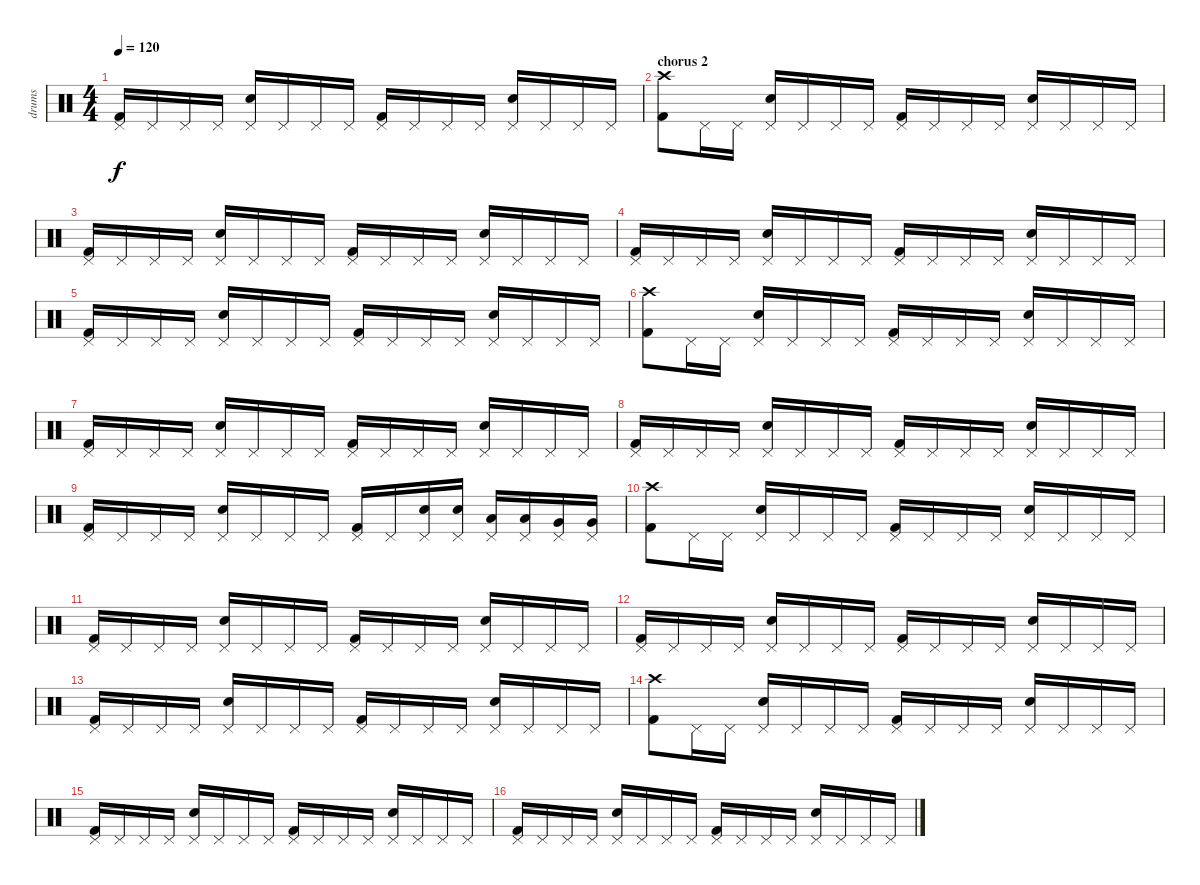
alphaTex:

\track ("drums" "drums") {instrument percussion}
\staff {score}
\articulation defaults
\ts (4 4)
\tempo 120
\clef neutral
\ks c
("Kick (hit) 2" "Pedal Hi-Hat (hit)").16{dy f} "Pedal Hi-Hat (hit)".16 "Pedal Hi-Hat (hit)".16 "Pedal Hi-Hat (hit)".16 ("Electric Snare (hit)" "Pedal Hi-Hat (hit)").16 "Pedal Hi-Hat (hit)".16 "Pedal Hi-Hat (hit)".16 "Pedal Hi-Hat (hit)".16 ("Kick (hit) 2" "Pedal Hi-Hat (hit)").16 "Pedal Hi-Hat (hit)".16 "Pedal Hi-Hat (hit)".16 "Pedal Hi-Hat (hit)".16 ("Electric Snare (hit)" "Pedal Hi-Hat (hit)").16 "Pedal Hi-Hat (hit)".16 "Pedal Hi-Hat (hit)".16 "Pedal Hi-Hat (hit)".16 |
\section ("" "chorus 2")
("Kick (hit) 2" "Crash high (hit)").8 "Pedal Hi-Hat (hit)".16 "Pedal Hi-Hat (hit)".16 ("Electric Snare (hit)" "Pedal Hi-Hat (hit)").16 "Pedal Hi-Hat (hit)".16 "Pedal Hi-Hat (hit)".16 "Pedal Hi-Hat (hit)".16 ("Kick (hit) 2" "Pedal Hi-Hat (hit)").16 "Pedal Hi-Hat (hit)".16 "Pedal Hi-Hat (hit)".16 "Pedal Hi-Hat (hit)".16 ("Electric Snare (hit)" "Pedal Hi-Hat (hit)").16 "Pedal Hi-Hat (hit)".16 "Pedal Hi-Hat (hit)".16 "Pedal Hi-Hat (hit)".16 |
("Kick (hit) 2" "Pedal Hi-Hat (hit)").16 "Pedal Hi-Hat (hit)".16 "Pedal Hi-Hat (hit)".16 "Pedal Hi-Hat (hit)".16 ("Electric Snare (hit)" "Pedal Hi-Hat (hit)").16 "Pedal Hi-Hat (hit)".16 "Pedal Hi-Hat (hit)".16 "Pedal Hi-Hat (hit)".16 ("Kick (hit) 2" "Pedal Hi-Hat (hit)").16 "Pedal Hi-Hat (hit)".16 "Pedal Hi-Hat (hit)".16 "Pedal Hi-Hat (hit)".16 ("Electric Snare (hit)" "Pedal Hi-Hat (hit)").16 "Pedal Hi-Hat (hit)".16 "Pedal Hi-Hat (hit)".16 "Pedal Hi-Hat (hit)".16 |
("Kick (hit) 2" "Pedal Hi-Hat (hit)").16 "Pedal Hi-Hat (hit)".16 "Pedal Hi-Hat (hit)".16 "Pedal Hi-Hat (hit)".16 ("Electric Snare (hit)" "Pedal Hi-Hat (hit)").16 "Pedal Hi-Hat (hit)".16 "Pedal Hi-Hat (hit)".16 "Pedal Hi-Hat (hit)".16 ("Kick (hit) 2" "Pedal Hi-Hat (hit)").16 "Pedal Hi-Hat (hit)".16 "Pedal Hi-Hat (hit)".16 "Pedal Hi-Hat (hit)".16 ("Electric Snare (hit)" "Pedal Hi-Hat (hit)").16 "Pedal Hi-Hat (hit)".16 "Pedal Hi-Hat (hit)".16 "Pedal Hi-Hat (hit)".16 |
("Kick (hit) 2" "Pedal Hi-Hat (hit)").16 "Pedal Hi-Hat (hit)".16 "Pedal Hi-Hat (hit)".16 "Pedal Hi-Hat (hit)".16 ("Electric Snare (hit)" "Pedal Hi-Hat (hit)").16 "Pedal Hi-Hat (hit)".16 "Pedal Hi-Hat (hit)".16 "Pedal Hi-Hat (hit)".16 ("Kick (hit) 2" "Pedal Hi-Hat (hit)").16 "Pedal Hi-Hat (hit)".16 "Pedal Hi-Hat (hit)".16 "Pedal Hi-Hat (hit)".16 ("Electric Snare (hit)" "Pedal Hi-Hat (hit)").16 "Pedal Hi-Hat (hit)".16 "Pedal Hi-Hat (hit)".16 "Pedal Hi-Hat (hit)".16 |
("Kick (hit) 2" "Crash high (hit)").8 "Pedal Hi-Hat (hit)".16 "Pedal Hi-Hat (hit)".16 ("Electric Snare (hit)" "Pedal Hi-Hat (hit)").16 "Pedal Hi-Hat (hit)".16 "Pedal Hi-Hat (hit)".16 "Pedal Hi-Hat (hit)".16 ("Kick (hit) 2" "Pedal Hi-Hat (hit)").16 "Pedal Hi-Hat (hit)".16 "Pedal Hi-Hat (hit)".16 "Pedal Hi-Hat (hit)".16 ("Electric Snare (hit)" "Pedal Hi-Hat (hit)").16 "Pedal Hi-Hat (hit)".16 "Pedal Hi-Hat (hit)".16 "Pedal Hi-Hat (hit)".16 |
("Kick (hit) 2" "Pedal Hi-Hat (hit)").16 "Pedal Hi-Hat (hit)".16 "Pedal Hi-Hat (hit)".16 "Pedal Hi-Hat (hit)".16 ("Electric Snare (hit)" "Pedal Hi-Hat (hit)").16 "Pedal Hi-Hat (hit)".16 "Pedal Hi-Hat (hit)".16 "Pedal Hi-Hat (hit)".16 ("Kick (hit) 2" "Pedal Hi-Hat (hit)").16 "Pedal Hi-Hat (hit)".16 "Pedal Hi-Hat (hit)".16 "Pedal Hi-Hat (hit)".16 ("Electric Snare (hit)" "Pedal Hi-Hat (hit)").16 "Pedal Hi-Hat (hit)".16 "Pedal Hi-Hat (hit)".16 "Pedal Hi-Hat (hit)".16 |
("Kick (hit) 2" "Pedal Hi-Hat (hit)").16 "Pedal Hi-Hat (hit)".16 "Pedal Hi-Hat (hit)".16 "Pedal Hi-Hat (hit)".16 ("Electric Snare (hit)" "Pedal Hi-Hat (hit)").16 "Pedal Hi-Hat (hit)".16 "Pedal Hi-Hat (hit)".16 "Pedal Hi-Hat (hit)".16 ("Kick (hit) 2" "Pedal Hi-Hat (hit)").16 "Pedal Hi-Hat (hit)".16 "Pedal Hi-Hat (hit)".16 "Pedal Hi-Hat (hit)".16 ("Electric Snare (hit)" "Pedal Hi-Hat (hit)").16 "Pedal Hi-Hat (hit)".16 "Pedal Hi-Hat (hit)".16 "Pedal Hi-Hat (hit)".16 |
("Kick (hit) 2" "Pedal Hi-Hat (hit)").16 "Pedal Hi-Hat (hit)".16 "Pedal Hi-Hat (hit)".16 "Pedal Hi-Hat (hit)".16 ("Electric Snare (hit)" "Pedal Hi-Hat (hit)").16 "Pedal Hi-Hat (hit)".16 "Pedal Hi-Hat (hit)".16 "Pedal Hi-Hat (hit)".16 ("Kick (hit) 2" "Pedal Hi-Hat (hit)").16 "Pedal Hi-Hat (hit)".16 ("Electric Snare (hit)" "Pedal Hi-Hat (hit)").16 ("Electric Snare (hit)" "Pedal Hi-Hat (hit)").16 ("Low Tom (hit)" "Pedal Hi-Hat (hit)").16 ("Low Tom (hit)" "Pedal Hi-Hat (hit)").16 ("Very Low Tom (hit)" "Pedal Hi-Hat (hit)").16 ("Very Low Tom (hit)" "Pedal Hi-Hat (hit)").16 |
("Kick (hit) 2" "Crash high (hit)").8 "Pedal Hi-Hat (hit)".16 "Pedal Hi-Hat (hit)".16 ("Electric Snare (hit)" "Pedal Hi-Hat (hit)").16 "Pedal Hi-Hat (hit)".16 "Pedal Hi-Hat (hit)".16 "Pedal Hi-Hat (hit)".16 ("Kick (hit) 2" "Pedal Hi-Hat (hit)").16 "Pedal Hi-Hat (hit)".16 "Pedal Hi-Hat (hit)".16 "Pedal Hi-Hat (hit)".16 ("Electric Snare (hit)" "Pedal Hi-Hat (hit)").16 "Pedal Hi-Hat (hit)".16 "Pedal Hi-Hat (hit)".16 "Pedal Hi-Hat (hit)".16 |
("Kick (hit) 2" "Pedal Hi-Hat (hit)").16 "Pedal Hi-Hat (hit)".16 "Pedal Hi-Hat (hit)".16 "Pedal Hi-Hat (hit)".16 ("Electric Snare (hit)" "Pedal Hi-Hat (hit)").16 "Pedal Hi-Hat (hit)".16 "Pedal Hi-Hat (hit)".16 "Pedal Hi-Hat (hit)".16 ("Kick (hit) 2" "Pedal Hi-Hat (hit)").16 "Pedal Hi-Hat (hit)".16 "Pedal Hi-Hat (hit)".16 "Pedal Hi-Hat (hit)".16 ("Electric Snare (hit)" "Pedal Hi-Hat (hit)").16 "Pedal Hi-Hat (hit)".16 "Pedal Hi-Hat (hit)".16 "Pedal Hi-Hat (hit)".16 |
("Kick (hit) 2" "Pedal Hi-Hat (hit)").16 "Pedal Hi-Hat (hit)".16 "Pedal Hi-Hat (hit)".16 "Pedal Hi-Hat (hit)".16 ("Electric Snare (hit)" "Pedal Hi-Hat (hit)").16 "Pedal Hi-Hat (hit)".16 "Pedal Hi-Hat (hit)".16 "Pedal Hi-Hat (hit)".16 ("Kick (hit) 2" "Pedal Hi-Hat (hit)").16 "Pedal Hi-Hat (hit)".16 "Pedal Hi-Hat (hit)".16 "Pedal Hi-Hat (hit)".16 ("Electric Snare (hit)" "Pedal Hi-Hat (hit)").16 "Pedal Hi-Hat (hit)".16 "Pedal Hi-Hat (hit)".16 "Pedal Hi-Hat (hit)".16 |
("Kick (hit) 2" "Pedal Hi-Hat (hit)").16 "Pedal Hi-Hat (hit)".16 "Pedal Hi-Hat (hit)".16 "Pedal Hi-Hat (hit)".16 ("Electric Snare (hit)" "Pedal Hi-Hat (hit)").16 "Pedal Hi-Hat (hit)".16 "Pedal Hi-Hat (hit)".16 "Pedal Hi-Hat (hit)".16 ("Kick (hit) 2" "Pedal Hi-Hat (hit)").16 "Pedal Hi-Hat (hit)".16 "Pedal Hi-Hat (hit)".16 "Pedal Hi-Hat (hit)".16 ("Electric Snare (hit)" "Pedal Hi-Hat (hit)").16 "Pedal Hi-Hat (hit)".16 "Pedal Hi-Hat (hit)".16 "Pedal Hi-Hat (hit)".16 |
("Kick (hit) 2" "Crash high (hit)").8 "Pedal Hi-Hat (hit)".16 "Pedal Hi-Hat (hit)".16 ("Electric Snare (hit)" "Pedal Hi-Hat (hit)").16 "Pedal Hi-Hat (hit)".16 "Pedal Hi-Hat (hit)".16 "Pedal Hi-Hat (hit)".16 ("Kick (hit) 2" "Pedal Hi-Hat (hit)").16 "Pedal Hi-Hat (hit)".16 "Pedal Hi-Hat (hit)".16 "Pedal Hi-Hat (hit)".16 ("Electric Snare (hit)" "Pedal Hi-Hat (hit)").16 "Pedal Hi-Hat (hit)".16 "Pedal Hi-Hat (hit)".16 "Pedal Hi-Hat (hit)".16 |
("Kick (hit) 2" "Pedal Hi-Hat (hit)").16 "Pedal Hi-Hat (hit)".16 "Pedal Hi-Hat (hit)".16 "Pedal Hi-Hat (hit)".16 ("Electric Snare (hit)" "Pedal Hi-Hat (hit)").16 "Pedal Hi-Hat (hit)".16 "Pedal Hi-Hat (hit)".16 "Pedal Hi-Hat (hit)".16 ("Kick (hit) 2" "Pedal Hi-Hat (hit)").16 "Pedal Hi-Hat (hit)".16 "Pedal Hi-Hat (hit)".16 "Pedal Hi-Hat (hit)".16 ("Electric Snare (hit)" "Pedal Hi-Hat (hit)").16 "Pedal Hi-Hat (hit)".16 "Pedal Hi-Hat (hit)".16 "Pedal Hi-Hat (hit)".16 |
("Kick (hit) 2" "Pedal Hi-Hat (hit)").16 "Pedal Hi-Hat (hit)".16 "Pedal Hi-Hat (hit)".16 "Pedal Hi-Hat (hit)".16 ("Electric Snare (hit)" "Pedal Hi-Hat (hit)").16 "Pedal Hi-Hat (hit)".16 "Pedal Hi-Hat (hit)".16 "Pedal Hi-Hat (hit)".16 ("Kick (hit) 2" "Pedal Hi-Hat (hit)").16 "Pedal Hi-Hat (hit)".16 "Pedal Hi-Hat (hit)".16 "Pedal Hi-Hat (hit)".16 ("Electric Snare (hit)" "Pedal Hi-Hat (hit)").16 "Pedal Hi-Hat (hit)".16 "Pedal Hi-Hat (hit)".16 "Pedal Hi-Hat (hit)".16
